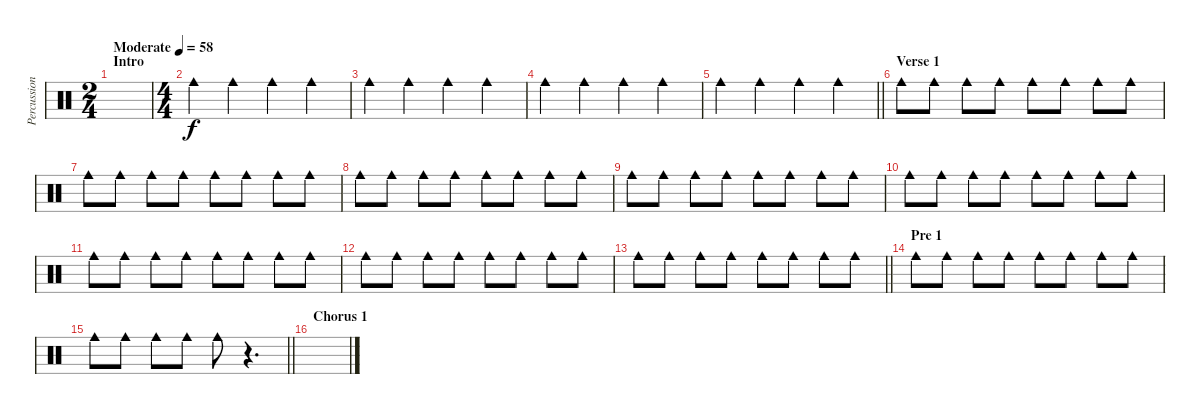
\track ("Percussion 2" "Percussion") {instrument percussion}
\staff {score}
\articulation defaults
\ts (2 4)
\section ("" "Intro")
\tempo (58 "Moderate")
\clef neutral
\ks c
|
\ts (4 4)
"Cowbell medium (hit)".4 "Cowbell medium (hit)".4 "Cowbell medium (hit)".4 "Cowbell medium (hit)".4 |
"Cowbell medium (hit)".4 "Cowbell medium (hit)".4 "Cowbell medium (hit)".4 "Cowbell medium (hit)".4 |
"Cowbell medium (hit)".4 "Cowbell medium (hit)".4 "Cowbell medium (hit)".4 "Cowbell medium (hit)".4 |
\barLineRight lightlight "Cowbell medium (hit)".4 "Cowbell medium (hit)".4 "Cowbell medium (hit)".4 "Cowbell medium (hit)".4
|
\section ("" "Verse 1")
"Cowbell medium (hit)".8 "Cowbell medium (hit)".8 "Cowbell medium (hit)".8 "Cowbell medium (hit)".8 "Cowbell medium (hit)".8 "Cowbell medium (hit)".8 "Cowbell medium (hit)".8 "Cowbell medium (hit)".8 |
"Cowbell medium (hit)".8 "Cowbell medium (hit)".8 "Cowbell medium (hit)".8 "Cowbell medium (hit)".8 "Cowbell medium (hit)".8 "Cowbell medium (hit)".8 "Cowbell medium (hit)".8 "Cowbell medium (hit)".8 |
"Cowbell medium (hit)".8 "Cowbell medium (hit)".8 "Cowbell medium (hit)".8 "Cowbell medium (hit)".8 "Cowbell medium (hit)".8 "Cowbell medium (hit)".8 "Cowbell medium (hit)".8 "Cowbell medium (hit)".8 |
"Cowbell medium (hit)".8 "Cowbell medium (hit)".8 "Cowbell medium (hit)".8 "Cowbell medium (hit)".8 "Cowbell medium (hit)".8 "Cowbell medium (hit)".8 "Cowbell medium (hit)".8 "Cowbell medium (hit)".8 |
"Cowbell medium (hit)".8 "Cowbell medium (hit)".8 "Cowbell medium (hit)".8 "Cowbell medium (hit)".8 "Cowbell medium (hit)".8 "Cowbell medium (hit)".8 "Cowbell medium (hit)".8 "Cowbell medium (hit)".8 |
"Cowbell medium (hit)".8 "Cowbell medium (hit)".8 "Cowbell medium (hit)".8 "Cowbell medium (hit)".8 "Cowbell medium (hit)".8 "Cowbell medium (hit)".8 "Cowbell medium (hit)".8 "Cowbell medium (hit)".8 |
"Cowbell medium (hit)".8 "Cowbell medium (hit)".8 "Cowbell medium (hit)".8 "Cowbell medium (hit)".8 "Cowbell medium (hit)".8 "Cowbell medium (hit)".8 "Cowbell medium (hit)".8 "Cowbell medium (hit)".8 |
\barLineRight lightlight "Cowbell medium (hit)".8 "Cowbell medium (hit)".8 "Cowbell medium (hit)".8 "Cowbell medium (hit)".8 "Cowbell medium (hit)".8 "Cowbell medium (hit)".8 "Cowbell medium (hit)".8 "Cowbell medium (hit)".8
|
\section ("" "Pre 1")
"Cowbell medium (hit)".8 "Cowbell medium (hit)".8 "Cowbell medium (hit)".8 "Cowbell medium (hit)".8 "Cowbell medium (hit)".8 "Cowbell medium (hit)".8 "Cowbell medium (hit)".8 "Cowbell medium (hit)".8 |
\barLineRight lightlight "Cowbell medium (hit)".8 "Cowbell medium (hit)".8 "Cowbell medium (hit)".8 "Cowbell medium (hit)".8 "Cowbell medium (hit)".8
r.4{d} |
\section ("" "Chorus 1")
